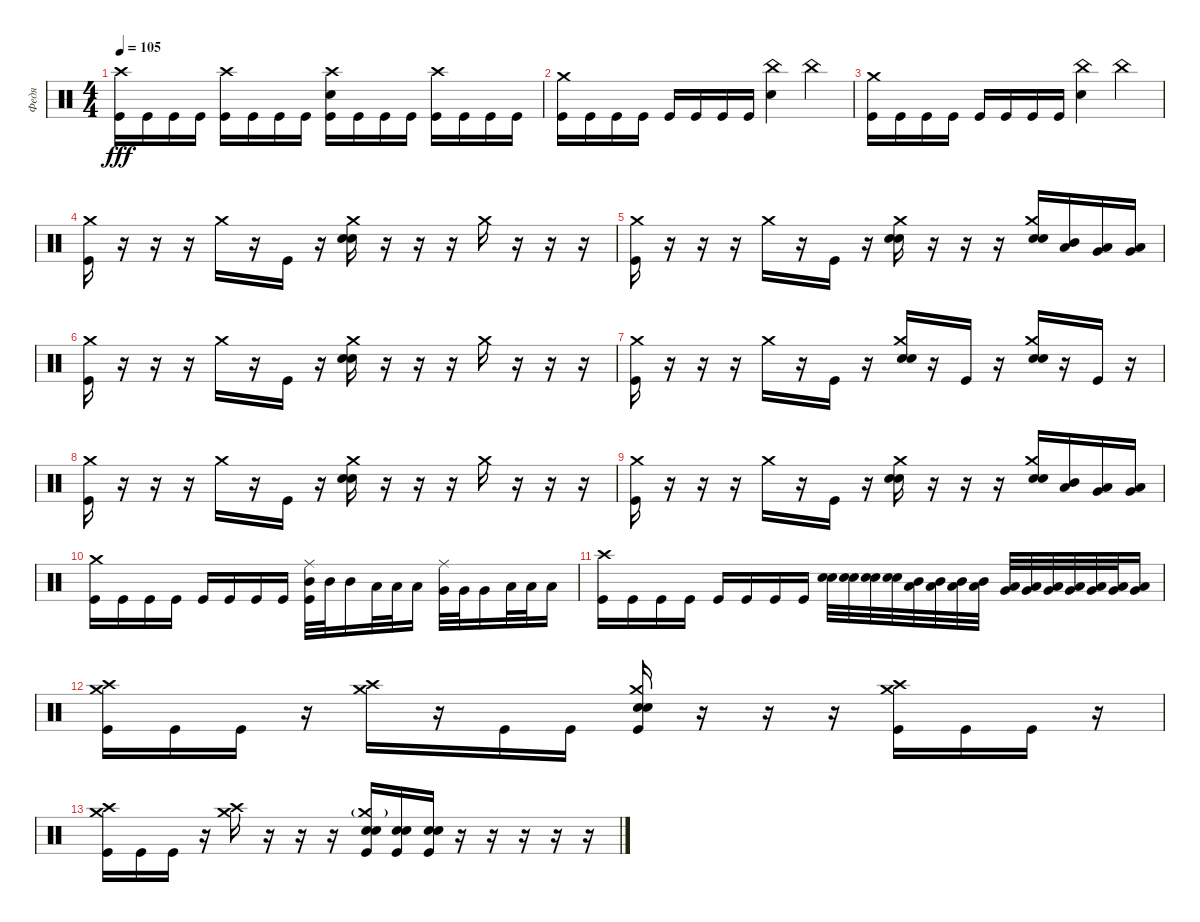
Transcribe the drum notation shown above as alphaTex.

\track ("Федя" "Федя") {instrument percussion}
\staff {score}
\articulation defaults
\ts (4 4)
\tempo 105
\clef neutral
\ks c
("Crash high (hit)" "Kick (hit)").16{dy fff} "Kick (hit)".16 "Kick (hit)".16 "Kick (hit)".16 ("Crash high (hit)" "Kick (hit)").16 "Kick (hit)".16 "Kick (hit)".16 "Kick (hit)".16 ("Crash high (hit)" "Snare (hit) 2" "Kick (hit)").16 "Kick (hit)".16 "Kick (hit)".16 "Kick (hit)".16 ("Crash high (hit)" "Kick (hit)").16 "Kick (hit)".16 "Kick (hit)".16 "Kick (hit)".16 |
("Crash medium (hit)" "Kick (hit)").16 "Kick (hit)".16 "Kick (hit)".16 "Kick (hit)".16 "Kick (hit)".16 "Kick (hit)".16 "Kick (hit)".16 "Kick (hit)".16 ("China (hit)" "Snare (hit) 2").4 "China (hit)".4 |
("Crash medium (hit)" "Kick (hit)").16 "Kick (hit)".16 "Kick (hit)".16 "Kick (hit)".16 "Kick (hit)".16 "Kick (hit)".16 "Kick (hit)".16 "Kick (hit)".16 ("China (hit)" "Snare (hit) 2").4 "China (hit)".4 |
("Crash medium (hit)" "Kick (hit)").16 r.16 r.16 r.16 "Crash medium (hit)".16 r.16 "Kick (hit)".16 r.16 ("Crash medium (hit)" "Electric Snare (hit)" "Snare (hit) 2").16 r.16 r.16 r.16 "Crash medium (hit)".16 r.16 r.16 r.16 |
("Crash medium (hit)" "Kick (hit)").16 r.16 r.16 r.16 "Crash medium (hit)".16 r.16 "Kick (hit)".16 r.16 ("Crash medium (hit)" "Electric Snare (hit)" "Snare (hit) 2").16 r.16 r.16 r.16 ("Crash medium (hit)" "Snare (hit) 2" "Electric Snare (hit)").16 ("Low Tom (hit)" "Mid Tom (hit)").16 ("Very Low Tom (hit)" "Low Tom (hit)").16 ("Low Floor Tom (hit)" "Very Low Tom (hit)").16 |
("Crash medium (hit)" "Kick (hit)").16 r.16 r.16 r.16 "Crash medium (hit)".16 r.16 "Kick (hit)".16 r.16 ("Crash medium (hit)" "Electric Snare (hit)" "Snare (hit) 2").16 r.16 r.16 r.16 "Crash medium (hit)".16 r.16 r.16 r.16 |
("Crash medium (hit)" "Kick (hit)").16 r.16 r.16 r.16 "Crash medium (hit)".16 r.16 "Kick (hit)".16 r.16 ("Crash medium (hit)" "Electric Snare (hit)" "Snare (hit) 2").16 r.16 "Kick (hit)".16 r.16 ("Crash medium (hit)" "Electric Snare (hit)" "Snare (hit) 2").16 r.16 "Kick (hit)".16 r.16 |
("Crash medium (hit)" "Kick (hit)").16 r.16 r.16 r.16 "Crash medium (hit)".16 r.16 "Kick (hit)".16 r.16 ("Crash medium (hit)" "Electric Snare (hit)" "Snare (hit) 2").16 r.16 r.16 r.16 "Crash medium (hit)".16 r.16 r.16 r.16 |
("Crash medium (hit)" "Kick (hit)").16 r.16 r.16 r.16 "Crash medium (hit)".16 r.16 "Kick (hit)".16 r.16 ("Crash medium (hit)" "Electric Snare (hit)" "Snare (hit) 2").16 r.16 r.16 r.16 ("Crash medium (hit)" "Snare (hit) 2" "Electric Snare (hit)").16 ("Low Tom (hit)" "Mid Tom (hit)").16 ("Very Low Tom (hit)" "Low Tom (hit)").16 ("Low Floor Tom (hit)" "Very Low Tom (hit)").16 |
("Crash medium (hit)" "Kick (hit)").16 "Kick (hit)".16 "Kick (hit)".16 "Kick (hit)".16 "Kick (hit)".16 "Kick (hit)".16 "Kick (hit)".16 "Kick (hit)".16 ("Ride (middle)" "Mid Tom (hit)" "Kick (hit)").32 "Mid Tom (hit)".32 "Mid Tom (hit)".16 "Low Tom (hit)".32 "Low Tom (hit)".32 "Low Tom (hit)".16 ("Ride (middle)" "Very Low Tom (hit)").32 "Very Low Tom (hit)".32 "Very Low Tom (hit)".16 "Low Floor Tom (hit)".32 "Low Floor Tom (hit)".32 "Low Floor Tom (hit)".16 |
("Crash high (hit)" "Kick (hit)").16 "Kick (hit)".16 "Kick (hit)".16 "Kick (hit)".16 "Kick (hit)".16 "Kick (hit)".16 "Kick (hit)".16 "Kick (hit)".16 ("Electric Snare (hit)" "Snare (hit) 2").32 ("Electric Snare (hit)" "Snare (hit) 2").32 ("Electric Snare (hit)" "Snare (hit) 2").32 ("Electric Snare (hit)" "Snare (hit) 2").32 ("Mid Tom (hit)" "Low Tom (hit)").32 ("Mid Tom (hit)" "Low Tom (hit)").32 ("Mid Tom (hit)" "Low Tom (hit)").32 ("Mid Tom (hit)" "Low Tom (hit)").32 ("Low Tom (hit)" "Very Low Tom (hit)").32 ("Low Tom (hit)" "Very Low Tom (hit)").32 ("Low Tom (hit)" "Very Low Tom (hit)").32 ("Low Tom (hit)" "Very Low Tom (hit)").32 ("Very Low Tom (hit)" "Low Floor Tom (hit)").32 ("Very Low Tom (hit)" "Low Floor Tom (hit)").32 ("Very Low Tom (hit)" "Low Floor Tom (hit)").16 |
("Crash medium (hit)" "Crash high (hit)" "Kick (hit)").16 "Kick (hit)".16 "Kick (hit)".16 r.16 ("Crash medium (hit)" "Crash high (hit)").16 r.16 "Kick (hit)".16 "Kick (hit)".16 ("Crash medium (hit)" "Electric Snare (hit)" "Snare (hit) 2" "Kick (hit)").16 r.16 r.16 r.16 ("Crash medium (hit)" "Crash high (hit)" "Kick (hit)").16 "Kick (hit)".16 "Kick (hit)".16 r.16 |
("Crash medium (hit)" "Crash high (hit)" "Kick (hit)").16 "Kick (hit)".16 "Kick (hit)".16 r.16 ("Crash medium (hit)" "Crash high (hit)").16 r.16 r.16 r.16 ("Crash medium (hit)"{g} "Electric Snare (hit)" "Snare (hit) 2" "Kick (hit)").16 ("Electric Snare (hit)" "Snare (hit) 2" "Kick (hit)").16 ("Electric Snare (hit)" "Snare (hit) 2" "Kick (hit)").16 r.16 r.16 r.16 r.16 r.16
